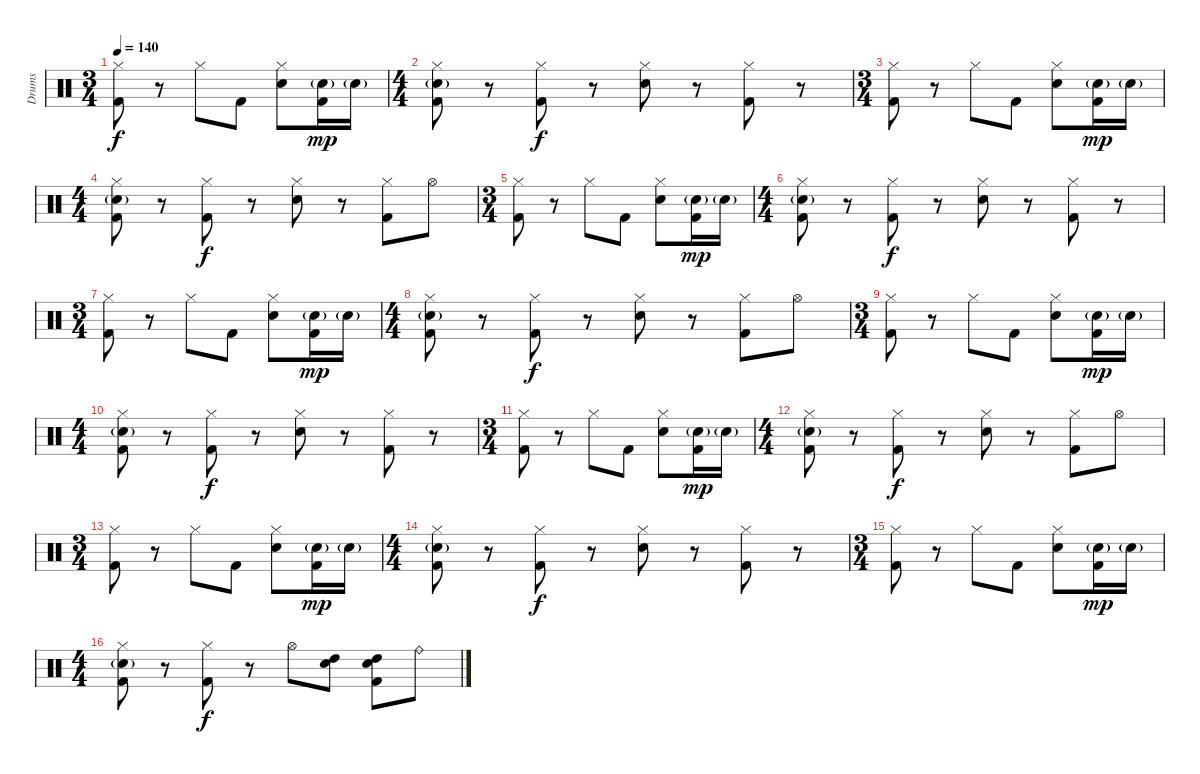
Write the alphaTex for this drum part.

\track ("Drums" "Drums") {instrument percussion}
\staff {score}
\articulation defaults
\ts (3 4)
\tempo 140
\clef neutral
\ks c
("Hi-Hat (closed)" "Kick (hit) 2").8{dy f} r.8 "Hi-Hat (closed)".8 "Kick (hit) 2".8 ("Hi-Hat (closed)" "Snare (hit) 2").8 ("Snare (hit) 2"{g} "Kick (hit) 2").16{dy mp} "Snare (hit) 2"{g}.16 |
\ts (4 4)
("Hi-Hat (closed)" "Snare (hit) 2"{g} "Kick (hit) 2").8 r.8 ("Hi-Hat (closed)" "Kick (hit) 2").8{dy f} r.8 ("Hi-Hat (closed)" "Snare (hit) 2").8 r.8 ("Hi-Hat (closed)" "Kick (hit) 2").8 r.8 |
\ts (3 4)
("Hi-Hat (closed)" "Kick (hit) 2").8 r.8 "Hi-Hat (closed)".8 "Kick (hit) 2".8 ("Hi-Hat (closed)" "Snare (hit) 2").8 ("Snare (hit) 2"{g} "Kick (hit) 2").16{dy mp} "Snare (hit) 2"{g}.16 |
\ts (4 4)
("Hi-Hat (closed)" "Snare (hit) 2"{g} "Kick (hit) 2").8 r.8 ("Hi-Hat (closed)" "Kick (hit) 2").8{dy f} r.8 ("Hi-Hat (closed)" "Snare (hit) 2").8 r.8 ("Hi-Hat (closed)" "Kick (hit) 2").8 "Hi-Hat (open)".8 |
\ts (3 4)
("Hi-Hat (closed)" "Kick (hit) 2").8 r.8 "Hi-Hat (closed)".8 "Kick (hit) 2".8 ("Hi-Hat (closed)" "Snare (hit) 2").8 ("Snare (hit) 2"{g} "Kick (hit) 2").16{dy mp} "Snare (hit) 2"{g}.16 |
\ts (4 4)
("Hi-Hat (closed)" "Snare (hit) 2"{g} "Kick (hit) 2").8 r.8 ("Hi-Hat (closed)" "Kick (hit) 2").8{dy f} r.8 ("Hi-Hat (closed)" "Snare (hit) 2").8 r.8 ("Hi-Hat (closed)" "Kick (hit) 2").8 r.8 |
\ts (3 4)
("Hi-Hat (closed)" "Kick (hit) 2").8 r.8 "Hi-Hat (closed)".8 "Kick (hit) 2".8 ("Hi-Hat (closed)" "Snare (hit) 2").8 ("Snare (hit) 2"{g} "Kick (hit) 2").16{dy mp} "Snare (hit) 2"{g}.16 |
\ts (4 4)
("Hi-Hat (closed)" "Snare (hit) 2"{g} "Kick (hit) 2").8 r.8 ("Hi-Hat (closed)" "Kick (hit) 2").8{dy f} r.8 ("Hi-Hat (closed)" "Snare (hit) 2").8 r.8 ("Hi-Hat (closed)" "Kick (hit) 2").8 "Hi-Hat (open)".8 |
\ts (3 4)
("Hi-Hat (closed)" "Kick (hit) 2").8 r.8 "Hi-Hat (closed)".8 "Kick (hit) 2".8 ("Hi-Hat (closed)" "Snare (hit) 2").8 ("Snare (hit) 2"{g} "Kick (hit) 2").16{dy mp} "Snare (hit) 2"{g}.16 |
\ts (4 4)
("Hi-Hat (closed)" "Snare (hit) 2"{g} "Kick (hit) 2").8 r.8 ("Hi-Hat (closed)" "Kick (hit) 2").8{dy f} r.8 ("Hi-Hat (closed)" "Snare (hit) 2").8 r.8 ("Hi-Hat (closed)" "Kick (hit) 2").8 r.8 |
\ts (3 4)
("Hi-Hat (closed)" "Kick (hit) 2").8 r.8 "Hi-Hat (closed)".8 "Kick (hit) 2".8 ("Hi-Hat (closed)" "Snare (hit) 2").8 ("Snare (hit) 2"{g} "Kick (hit) 2").16{dy mp} "Snare (hit) 2"{g}.16 |
\ts (4 4)
("Hi-Hat (closed)" "Snare (hit) 2"{g} "Kick (hit) 2").8 r.8 ("Hi-Hat (closed)" "Kick (hit) 2").8{dy f} r.8 ("Hi-Hat (closed)" "Snare (hit) 2").8 r.8 ("Hi-Hat (closed)" "Kick (hit) 2").8 "Hi-Hat (open)".8 |
\ts (3 4)
("Hi-Hat (closed)" "Kick (hit) 2").8 r.8 "Hi-Hat (closed)".8 "Kick (hit) 2".8 ("Hi-Hat (closed)" "Snare (hit) 2").8 ("Snare (hit) 2"{g} "Kick (hit) 2").16{dy mp} "Snare (hit) 2"{g}.16 |
\ts (4 4)
("Hi-Hat (closed)" "Snare (hit) 2"{g} "Kick (hit) 2").8 r.8 ("Hi-Hat (closed)" "Kick (hit) 2").8{dy f} r.8 ("Hi-Hat (closed)" "Snare (hit) 2").8 r.8 ("Hi-Hat (closed)" "Kick (hit) 2").8 r.8 |
\ts (3 4)
("Hi-Hat (closed)" "Kick (hit) 2").8 r.8 "Hi-Hat (closed)".8 "Kick (hit) 2".8 ("Hi-Hat (closed)" "Snare (hit) 2").8 ("Snare (hit) 2"{g} "Kick (hit) 2").16{dy mp} "Snare (hit) 2"{g}.16 |
\ts (4 4)
("Hi-Hat (closed)" "Snare (hit) 2"{g} "Kick (hit) 2").8 r.8 ("Hi-Hat (closed)" "Kick (hit) 2").8{dy f} r.8 "Hi-Hat (open)".8 ("High Tom (hit)" "Snare (hit) 2").8 ("High Tom (hit)" "Snare (hit) 2" "Kick (hit) 2").8 "Ride (bell)".8
